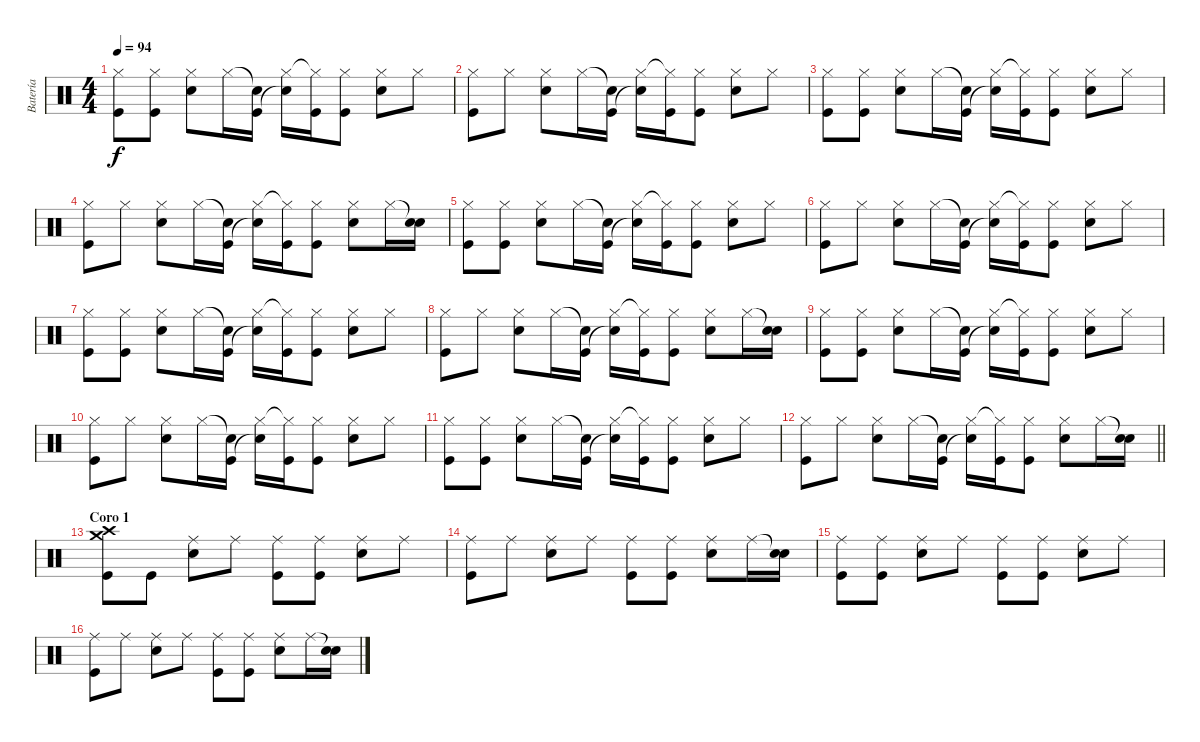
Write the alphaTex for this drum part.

\track ("Batería" "Batería") {instrument percussion}
\staff {score}
\articulation defaults
\ts (4 4)
\tempo 94
\clef neutral
\ks c
("Hi-Hat (closed)" "Kick (hit)").8{dy f} ("Hi-Hat (closed)" "Kick (hit)").8 ("Hi-Hat (closed)" "Snare (hit) 2").8 "Hi-Hat (closed)".16 ("Snare (hit)"{t} "Kick (hit)").16 ("Hi-Hat (closed)" "Snare (hit)"{t}).16 ("Hi-Hat (closed)"{t} "Kick (hit)").16 ("Hi-Hat (closed)" "Kick (hit)").8 ("Hi-Hat (closed)" "Snare (hit) 2").8 "Hi-Hat (closed)".8 |
("Hi-Hat (closed)" "Kick (hit)").8 "Hi-Hat (closed)".8 ("Hi-Hat (closed)" "Snare (hit) 2").8 "Hi-Hat (closed)".16 ("Snare (hit)"{t} "Kick (hit)").16 ("Hi-Hat (closed)" "Snare (hit)"{t}).16 ("Hi-Hat (closed)"{t} "Kick (hit)").16 ("Hi-Hat (closed)" "Kick (hit)").8 ("Hi-Hat (closed)" "Snare (hit) 2").8 "Hi-Hat (closed)".8 |
("Hi-Hat (closed)" "Kick (hit)").8 ("Hi-Hat (closed)" "Kick (hit)").8 ("Hi-Hat (closed)" "Snare (hit) 2").8 "Hi-Hat (closed)".16 ("Snare (hit)"{t} "Kick (hit)").16 ("Hi-Hat (closed)" "Snare (hit)"{t}).16 ("Hi-Hat (closed)"{t} "Kick (hit)").16 ("Hi-Hat (closed)" "Kick (hit)").8 ("Hi-Hat (closed)" "Snare (hit) 2").8 "Hi-Hat (closed)".8 |
("Hi-Hat (closed)" "Kick (hit)").8 "Hi-Hat (closed)".8 ("Hi-Hat (closed)" "Snare (hit) 2").8 "Hi-Hat (closed)".16 ("Snare (hit)"{t} "Kick (hit)").16 ("Hi-Hat (closed)" "Snare (hit)"{t}).16 ("Hi-Hat (closed)"{t} "Kick (hit)").16 ("Hi-Hat (closed)" "Kick (hit)").8 ("Hi-Hat (closed)" "Snare (hit) 2").8 "Hi-Hat (closed)".16 ("Snare (hit)"{t} "Snare (hit) 2").16 |
("Hi-Hat (closed)" "Kick (hit)").8 ("Hi-Hat (closed)" "Kick (hit)").8 ("Hi-Hat (closed)" "Snare (hit) 2").8 "Hi-Hat (closed)".16 ("Snare (hit)"{t} "Kick (hit)").16 ("Hi-Hat (closed)" "Snare (hit)"{t}).16 ("Hi-Hat (closed)"{t} "Kick (hit)").16 ("Hi-Hat (closed)" "Kick (hit)").8 ("Hi-Hat (closed)" "Snare (hit) 2").8 "Hi-Hat (closed)".8 |
("Hi-Hat (closed)" "Kick (hit)").8 "Hi-Hat (closed)".8 ("Hi-Hat (closed)" "Snare (hit) 2").8 "Hi-Hat (closed)".16 ("Snare (hit)"{t} "Kick (hit)").16 ("Hi-Hat (closed)" "Snare (hit)"{t}).16 ("Hi-Hat (closed)"{t} "Kick (hit)").16 ("Hi-Hat (closed)" "Kick (hit)").8 ("Hi-Hat (closed)" "Snare (hit) 2").8 "Hi-Hat (closed)".8 |
("Hi-Hat (closed)" "Kick (hit)").8 ("Hi-Hat (closed)" "Kick (hit)").8 ("Hi-Hat (closed)" "Snare (hit) 2").8 "Hi-Hat (closed)".16 ("Snare (hit)"{t} "Kick (hit)").16 ("Hi-Hat (closed)" "Snare (hit)"{t}).16 ("Hi-Hat (closed)"{t} "Kick (hit)").16 ("Hi-Hat (closed)" "Kick (hit)").8 ("Hi-Hat (closed)" "Snare (hit) 2").8 "Hi-Hat (closed)".8 |
("Hi-Hat (closed)" "Kick (hit)").8 "Hi-Hat (closed)".8 ("Hi-Hat (closed)" "Snare (hit) 2").8 "Hi-Hat (closed)".16 ("Snare (hit)"{t} "Kick (hit)").16 ("Hi-Hat (closed)" "Snare (hit)"{t}).16 ("Hi-Hat (closed)"{t} "Kick (hit)").16 ("Hi-Hat (closed)" "Kick (hit)").8 ("Hi-Hat (closed)" "Snare (hit) 2").8 "Hi-Hat (closed)".16 ("Snare (hit)"{t} "Snare (hit) 2").16 |
("Hi-Hat (closed)" "Kick (hit)").8 ("Hi-Hat (closed)" "Kick (hit)").8 ("Hi-Hat (closed)" "Snare (hit) 2").8 "Hi-Hat (closed)".16 ("Snare (hit)"{t} "Kick (hit)").16 ("Hi-Hat (closed)" "Snare (hit)"{t}).16 ("Hi-Hat (closed)"{t} "Kick (hit)").16 ("Hi-Hat (closed)" "Kick (hit)").8 ("Hi-Hat (closed)" "Snare (hit) 2").8 "Hi-Hat (closed)".8 |
("Hi-Hat (closed)" "Kick (hit)").8 "Hi-Hat (closed)".8 ("Hi-Hat (closed)" "Snare (hit) 2").8 "Hi-Hat (closed)".16 ("Snare (hit)"{t} "Kick (hit)").16 ("Hi-Hat (closed)" "Snare (hit)"{t}).16 ("Hi-Hat (closed)"{t} "Kick (hit)").16 ("Hi-Hat (closed)" "Kick (hit)").8 ("Hi-Hat (closed)" "Snare (hit) 2").8 "Hi-Hat (closed)".8 |
("Hi-Hat (closed)" "Kick (hit)").8 ("Hi-Hat (closed)" "Kick (hit)").8 ("Hi-Hat (closed)" "Snare (hit) 2").8 "Hi-Hat (closed)".16 ("Snare (hit)"{t} "Kick (hit)").16 ("Hi-Hat (closed)" "Snare (hit)"{t}).16 ("Hi-Hat (closed)"{t} "Kick (hit)").16 ("Hi-Hat (closed)" "Kick (hit)").8 ("Hi-Hat (closed)" "Snare (hit) 2").8 "Hi-Hat (closed)".8 |
\barLineRight lightlight
("Hi-Hat (closed)" "Kick (hit)").8 "Hi-Hat (closed)".8 ("Hi-Hat (closed)" "Snare (hit) 2").8 "Hi-Hat (closed)".16 ("Snare (hit)"{t} "Kick (hit)").16 ("Hi-Hat (closed)" "Snare (hit)"{t}).16 ("Hi-Hat (closed)"{t} "Kick (hit)").16 ("Hi-Hat (closed)" "Kick (hit)").8 ("Hi-Hat (closed)" "Snare (hit) 2").8 "Hi-Hat (closed)".16 ("Snare (hit)"{t} "Snare (hit) 2").16 |
\section ("" "Coro 1")
("Crash medium (hit)" "Crash high (hit)" "Kick (hit)").8 "Kick (hit)".8 ("Ride (middle)" "Snare (hit) 2").8 "Ride (middle)".8 ("Ride (middle)" "Kick (hit)").8 ("Ride (middle)" "Kick (hit)").8 ("Ride (middle)" "Snare (hit) 2").8 "Ride (middle)".8 |
("Ride (middle)" "Kick (hit)").8 "Ride (middle)".8 ("Ride (middle)" "Snare (hit) 2").8 "Ride (middle)".8 ("Ride (middle)" "Kick (hit)").8 ("Ride (middle)" "Kick (hit)").8 ("Ride (middle)" "Snare (hit) 2").8 "Ride (middle)".16 ("Snare (hit)"{t} "Snare (hit) 2").16 |
("Ride (middle)" "Kick (hit)").8 ("Ride (middle)" "Kick (hit)").8 ("Ride (middle)" "Snare (hit) 2").8 "Ride (middle)".8 ("Ride (middle)" "Kick (hit)").8 ("Ride (middle)" "Kick (hit)").8 ("Ride (middle)" "Snare (hit) 2").8 "Ride (middle)".8 |
("Ride (middle)" "Kick (hit)").8 "Ride (middle)".8 ("Ride (middle)" "Snare (hit) 2").8 "Ride (middle)".8 ("Ride (middle)" "Kick (hit)").8 ("Ride (middle)" "Kick (hit)").8 ("Ride (middle)" "Snare (hit) 2").8 "Ride (middle)".16 ("Snare (hit)"{t} "Snare (hit) 2").16
